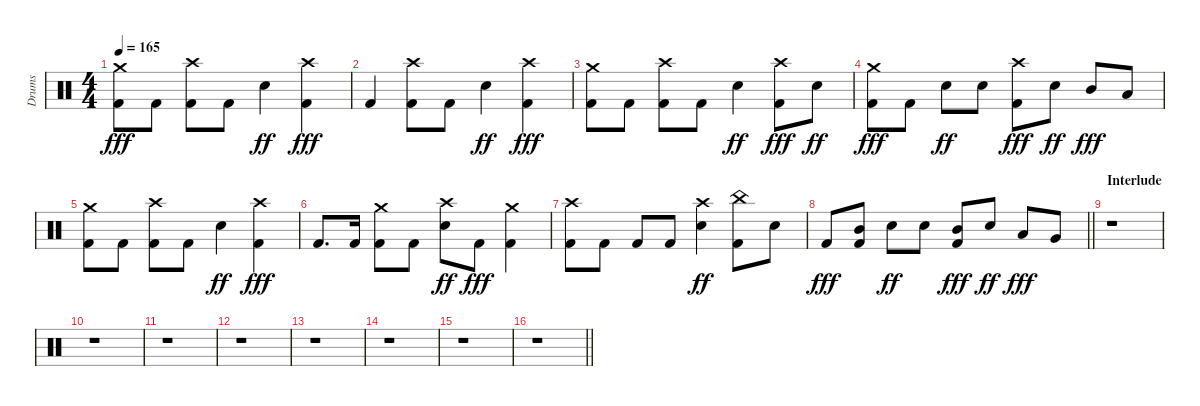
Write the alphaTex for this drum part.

\track ("Drums" "Drums") {instrument percussion}
\staff {score}
\articulation defaults
\ts (4 4)
\tempo 165
\clef neutral
\ks c
("Kick (hit) 2" "Crash medium (hit)").8{dy fff} "Kick (hit) 2".8 ("Kick (hit) 2" "Crash high (hit)").8 "Kick (hit) 2".8 "Snare (hit) 2".4{dy ff} ("Kick (hit) 2" "Crash high (hit)").4{dy fff} |
"Kick (hit) 2".4 ("Kick (hit) 2" "Crash high (hit)").8 "Kick (hit) 2".8 "Snare (hit) 2".4{dy ff} ("Kick (hit) 2" "Crash high (hit)").4{dy fff} |
("Kick (hit) 2" "Crash medium (hit)").8 "Kick (hit) 2".8 ("Kick (hit) 2" "Crash high (hit)").8 "Kick (hit) 2".8 "Snare (hit) 2".4{dy ff} ("Kick (hit) 2" "Crash high (hit)").8{dy fff} "Snare (hit) 2".8{dy ff} |
("Kick (hit) 2" "Crash medium (hit)").8{dy fff} "Kick (hit) 2".8 "Snare (hit) 2".8{dy ff} "Snare (hit) 2".8 ("Kick (hit) 2" "Crash high (hit)").8{dy fff} "Snare (hit) 2".8{dy ff} "Mid Tom (hit)".8{dy fff} "Low Tom (hit)".8 |
("Kick (hit) 2" "Crash medium (hit)").8 "Kick (hit) 2".8 ("Kick (hit) 2" "Crash high (hit)").8 "Kick (hit) 2".8 "Snare (hit) 2".4{dy ff} ("Kick (hit) 2" "Crash high (hit)").4{dy fff} |
"Kick (hit) 2".8{d} "Kick (hit) 2".16 ("Kick (hit) 2" "Crash medium (hit)").8 "Kick (hit) 2".8 ("Snare (hit) 2" "Crash high (hit)").8{dy ff} "Kick (hit) 2".8{dy fff} ("Kick (hit) 2" "Crash medium (hit)").4 |
("Kick (hit) 2" "Crash high (hit)").8 "Kick (hit) 2".8 "Kick (hit) 2".8 "Kick (hit) 2".8 ("Snare (hit) 2" "Crash high (hit)").4{dy ff} ("Kick (hit) 2" "China (hit)").8 "Snare (hit) 2".8 |
\barLineRight lightlight "Kick (hit) 2".8{dy fff}
("Kick (hit) 2" "Mid Tom (hit)").8 "Snare (hit) 2".8{dy ff} "Snare (hit) 2".8 ("Kick (hit) 2" "Mid Tom (hit)").8{dy fff} "Snare (hit) 2".8{dy ff} "Low Tom (hit)".8{dy fff} "Very Low Tom (hit)".8 |
\section ("" "Interlude")
r.1 |
r.1 |
r.1 |
r.1 |
r.1 |
r.1 |
r.1 |
\barLineRight lightlight
r.1
